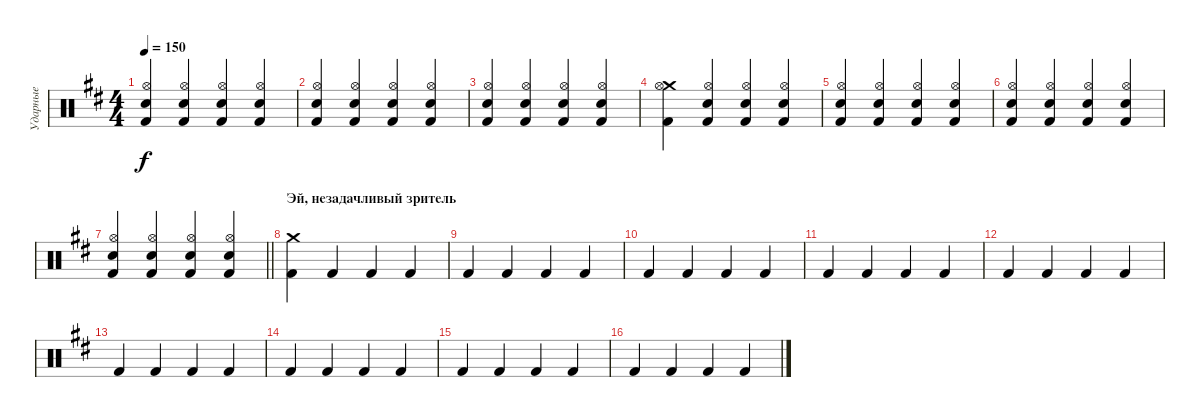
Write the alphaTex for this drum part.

\track ("Ударные" "Ударные") {instrument percussion}
\staff {score}
\articulation defaults
\ts (4 4)
\tempo 150
\clef neutral
\ks bminor
("Electric Snare (hit)" "Hi-Hat (open)" "Kick (hit) 2").4{dy f} ("Electric Snare (hit)" "Hi-Hat (open)" "Kick (hit) 2").4 ("Electric Snare (hit)" "Hi-Hat (open)" "Kick (hit) 2").4 ("Electric Snare (hit)" "Hi-Hat (open)" "Kick (hit) 2").4 |
("Electric Snare (hit)" "Hi-Hat (open)" "Kick (hit) 2").4 ("Electric Snare (hit)" "Hi-Hat (open)" "Kick (hit) 2").4 ("Electric Snare (hit)" "Hi-Hat (open)" "Kick (hit) 2").4 ("Electric Snare (hit)" "Hi-Hat (open)" "Kick (hit) 2").4 |
("Electric Snare (hit)" "Hi-Hat (open)" "Kick (hit) 2").4 ("Electric Snare (hit)" "Hi-Hat (open)" "Kick (hit) 2").4 ("Electric Snare (hit)" "Hi-Hat (open)" "Kick (hit) 2").4 ("Electric Snare (hit)" "Hi-Hat (open)" "Kick (hit) 2").4 |
("Crash medium (hit)" "Kick (hit) 2" "Hi-Hat (open)").4 ("Electric Snare (hit)" "Hi-Hat (open)" "Kick (hit) 2").4 ("Electric Snare (hit)" "Hi-Hat (open)" "Kick (hit) 2").4 ("Electric Snare (hit)" "Hi-Hat (open)" "Kick (hit) 2").4 |
("Electric Snare (hit)" "Hi-Hat (open)" "Kick (hit) 2").4 ("Electric Snare (hit)" "Hi-Hat (open)" "Kick (hit) 2").4 ("Electric Snare (hit)" "Hi-Hat (open)" "Kick (hit) 2").4 ("Electric Snare (hit)" "Hi-Hat (open)" "Kick (hit) 2").4 |
("Electric Snare (hit)" "Hi-Hat (open)" "Kick (hit) 2").4 ("Electric Snare (hit)" "Hi-Hat (open)" "Kick (hit) 2").4 ("Electric Snare (hit)" "Hi-Hat (open)" "Kick (hit) 2").4 ("Electric Snare (hit)" "Hi-Hat (open)" "Kick (hit) 2").4 |
\barLineRight lightlight
("Electric Snare (hit)" "Hi-Hat (open)" "Kick (hit) 2").4 ("Electric Snare (hit)" "Hi-Hat (open)" "Kick (hit) 2").4 ("Electric Snare (hit)" "Hi-Hat (open)" "Kick (hit) 2").4 ("Electric Snare (hit)" "Hi-Hat (open)" "Kick (hit) 2").4 |
\section ("" "Эй, незадачливый зритель")
("Crash medium (hit)" "Kick (hit) 2").4 "Kick (hit) 2".4 "Kick (hit) 2".4 "Kick (hit) 2".4 |
"Kick (hit) 2".4 "Kick (hit) 2".4 "Kick (hit) 2".4 "Kick (hit) 2".4 |
"Kick (hit) 2".4 "Kick (hit) 2".4 "Kick (hit) 2".4 "Kick (hit) 2".4 |
"Kick (hit) 2".4 "Kick (hit) 2".4 "Kick (hit) 2".4 "Kick (hit) 2".4 |
"Kick (hit) 2".4 "Kick (hit) 2".4 "Kick (hit) 2".4 "Kick (hit) 2".4 |
"Kick (hit) 2".4 "Kick (hit) 2".4 "Kick (hit) 2".4 "Kick (hit) 2".4 |
"Kick (hit) 2".4 "Kick (hit) 2".4 "Kick (hit) 2".4 "Kick (hit) 2".4 |
"Kick (hit) 2".4 "Kick (hit) 2".4 "Kick (hit) 2".4 "Kick (hit) 2".4 |
"Kick (hit) 2".4 "Kick (hit) 2".4 "Kick (hit) 2".4 "Kick (hit) 2".4
